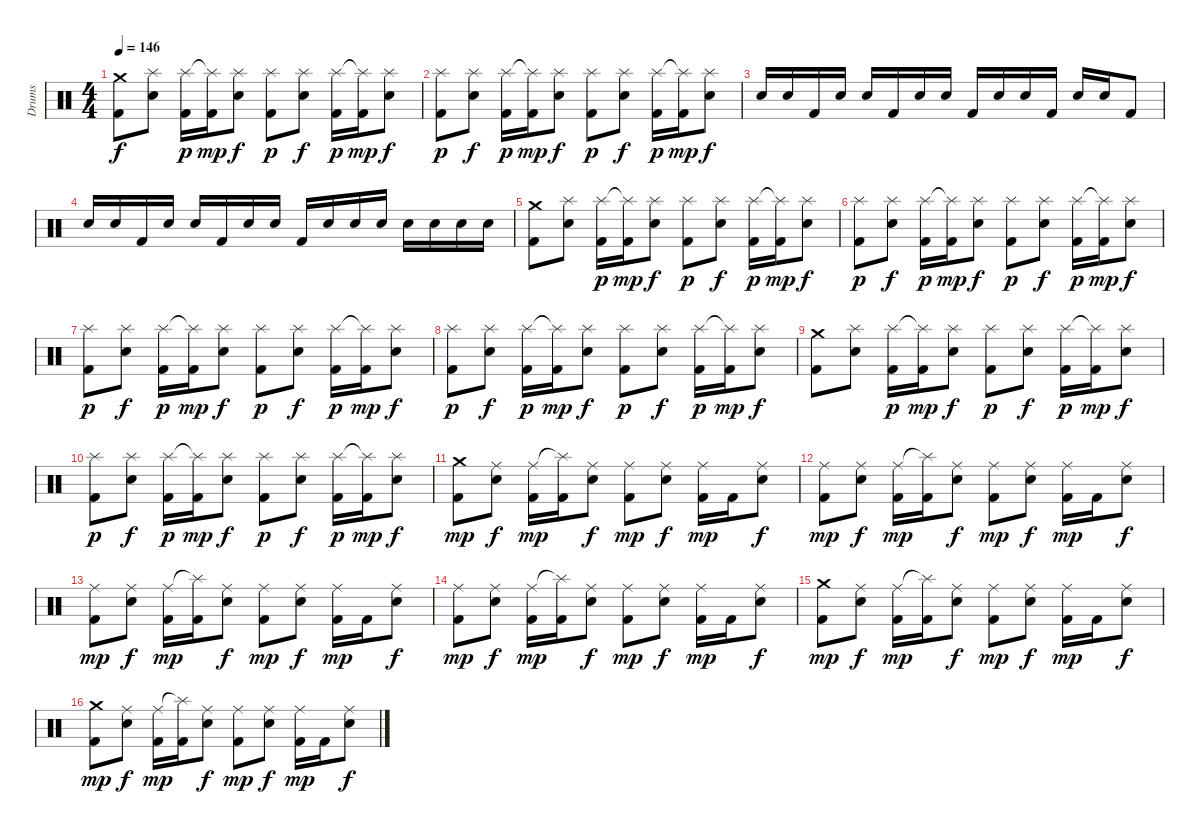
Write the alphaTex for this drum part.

\track ("Drums" "Drums") {instrument percussion}
\staff {score}
\articulation defaults
\ts (4 4)
\tempo 146
\clef neutral
\ks c
("Crash medium (hit)" "Kick (hit) 2").8{dy f} ("Splash (hit)" "Snare (hit) 2").8 ("Splash (hit)" "Kick (hit) 2").16{dy p} ("Splash (hit)"{t} "Kick (hit) 2").16{dy mp} ("Splash (hit)" "Snare (hit) 2").8{dy f} ("Splash (hit)" "Kick (hit) 2").8{dy p} ("Splash (hit)" "Snare (hit) 2").8{dy f} ("Splash (hit)" "Kick (hit) 2").16{dy p} ("Splash (hit)"{t} "Kick (hit) 2").16{dy mp} ("Splash (hit)" "Snare (hit) 2").8{dy f} |
("Splash (hit)" "Kick (hit) 2").8{dy p} ("Splash (hit)" "Snare (hit) 2").8{dy f} ("Splash (hit)" "Kick (hit) 2").16{dy p} ("Splash (hit)"{t} "Kick (hit) 2").16{dy mp} ("Splash (hit)" "Snare (hit) 2").8{dy f} ("Splash (hit)" "Kick (hit) 2").8{dy p} ("Splash (hit)" "Snare (hit) 2").8{dy f} ("Splash (hit)" "Kick (hit) 2").16{dy p} ("Splash (hit)"{t} "Kick (hit) 2").16{dy mp} ("Splash (hit)" "Snare (hit) 2").8{dy f} |
"Snare (hit) 2".16 "Snare (hit) 2".16 "Kick (hit) 2".16 "Snare (hit) 2".16 "Snare (hit) 2".16 "Kick (hit) 2".16 "Snare (hit) 2".16 "Snare (hit) 2".16 "Kick (hit) 2".16 "Snare (hit) 2".16 "Snare (hit) 2".16 "Kick (hit) 2".16 "Snare (hit) 2".16 "Snare (hit) 2".16 "Kick (hit) 2".8 |
"Snare (hit) 2".16 "Snare (hit) 2".16 "Kick (hit) 2".16 "Snare (hit) 2".16 "Snare (hit) 2".16 "Kick (hit) 2".16 "Snare (hit) 2".16 "Snare (hit) 2".16 "Kick (hit) 2".16 "Snare (hit) 2".16 "Snare (hit) 2".16 "Snare (hit) 2".16 "Snare (hit) 2".16 "Snare (hit) 2".16 "Snare (hit) 2".16 "Snare (hit) 2".16 |
("Crash medium (hit)" "Kick (hit) 2").8 ("Splash (hit)" "Snare (hit) 2").8 ("Splash (hit)" "Kick (hit) 2").16{dy p} ("Splash (hit)"{t} "Kick (hit) 2").16{dy mp} ("Splash (hit)" "Snare (hit) 2").8{dy f} ("Splash (hit)" "Kick (hit) 2").8{dy p} ("Splash (hit)" "Snare (hit) 2").8{dy f} ("Splash (hit)" "Kick (hit) 2").16{dy p} ("Splash (hit)"{t} "Kick (hit) 2").16{dy mp} ("Splash (hit)" "Snare (hit) 2").8{dy f} |
("Splash (hit)" "Kick (hit) 2").8{dy p} ("Splash (hit)" "Snare (hit) 2").8{dy f} ("Splash (hit)" "Kick (hit) 2").16{dy p} ("Splash (hit)"{t} "Kick (hit) 2").16{dy mp} ("Splash (hit)" "Snare (hit) 2").8{dy f} ("Splash (hit)" "Kick (hit) 2").8{dy p} ("Splash (hit)" "Snare (hit) 2").8{dy f} ("Splash (hit)" "Kick (hit) 2").16{dy p} ("Splash (hit)"{t} "Kick (hit) 2").16{dy mp} ("Splash (hit)" "Snare (hit) 2").8{dy f} |
("Splash (hit)" "Kick (hit) 2").8{dy p} ("Splash (hit)" "Snare (hit) 2").8{dy f} ("Splash (hit)" "Kick (hit) 2").16{dy p} ("Splash (hit)"{t} "Kick (hit) 2").16{dy mp} ("Splash (hit)" "Snare (hit) 2").8{dy f} ("Splash (hit)" "Kick (hit) 2").8{dy p} ("Splash (hit)" "Snare (hit) 2").8{dy f} ("Splash (hit)" "Kick (hit) 2").16{dy p} ("Splash (hit)"{t} "Kick (hit) 2").16{dy mp} ("Splash (hit)" "Snare (hit) 2").8{dy f} |
("Splash (hit)" "Kick (hit) 2").8{dy p} ("Splash (hit)" "Snare (hit) 2").8{dy f} ("Splash (hit)" "Kick (hit) 2").16{dy p} ("Splash (hit)"{t} "Kick (hit) 2").16{dy mp} ("Splash (hit)" "Snare (hit) 2").8{dy f} ("Splash (hit)" "Kick (hit) 2").8{dy p} ("Splash (hit)" "Snare (hit) 2").8{dy f} ("Splash (hit)" "Kick (hit) 2").16{dy p} ("Splash (hit)"{t} "Kick (hit) 2").16{dy mp} ("Splash (hit)" "Snare (hit) 2").8{dy f} |
("Crash medium (hit)" "Kick (hit) 2").8 ("Splash (hit)" "Snare (hit) 2").8 ("Splash (hit)" "Kick (hit) 2").16{dy p} ("Splash (hit)"{t} "Kick (hit) 2").16{dy mp} ("Splash (hit)" "Snare (hit) 2").8{dy f} ("Splash (hit)" "Kick (hit) 2").8{dy p} ("Splash (hit)" "Snare (hit) 2").8{dy f} ("Splash (hit)" "Kick (hit) 2").16{dy p} ("Splash (hit)"{t} "Kick (hit) 2").16{dy mp} ("Splash (hit)" "Snare (hit) 2").8{dy f} |
("Splash (hit)" "Kick (hit) 2").8{dy p} ("Splash (hit)" "Snare (hit) 2").8{dy f} ("Splash (hit)" "Kick (hit) 2").16{dy p} ("Splash (hit)"{t} "Kick (hit) 2").16{dy mp} ("Splash (hit)" "Snare (hit) 2").8{dy f} ("Splash (hit)" "Kick (hit) 2").8{dy p} ("Splash (hit)" "Snare (hit) 2").8{dy f} ("Splash (hit)" "Kick (hit) 2").16{dy p} ("Splash (hit)"{t} "Kick (hit) 2").16{dy mp} ("Splash (hit)" "Snare (hit) 2").8{dy f} |
("Crash medium (hit)" "Kick (hit) 2").8{dy mp} ("Ride (middle)" "Snare (hit) 2").8{dy f} ("Ride (middle)" "Kick (hit) 2").16{dy mp} ("Splash (hit)"{t} "Kick (hit) 2").16 ("Ride (middle)" "Snare (hit) 2").8{dy f} ("Ride (middle)" "Kick (hit) 2").8{dy mp} ("Ride (middle)" "Snare (hit) 2").8{dy f} ("Ride (middle)" "Kick (hit) 2").16{dy mp} "Kick (hit) 2".16 ("Ride (middle)" "Snare (hit) 2").8{dy f} |
("Ride (middle)" "Kick (hit) 2").8{dy mp} ("Ride (middle)" "Snare (hit) 2").8{dy f} ("Ride (middle)" "Kick (hit) 2").16{dy mp} ("Splash (hit)"{t} "Kick (hit) 2").16 ("Ride (middle)" "Snare (hit) 2").8{dy f} ("Ride (middle)" "Kick (hit) 2").8{dy mp} ("Ride (middle)" "Snare (hit) 2").8{dy f} ("Ride (middle)" "Kick (hit) 2").16{dy mp} "Kick (hit) 2".16 ("Ride (middle)" "Snare (hit) 2").8{dy f} |
("Ride (middle)" "Kick (hit) 2").8{dy mp} ("Ride (middle)" "Snare (hit) 2").8{dy f} ("Ride (middle)" "Kick (hit) 2").16{dy mp} ("Splash (hit)"{t} "Kick (hit) 2").16 ("Ride (middle)" "Snare (hit) 2").8{dy f} ("Ride (middle)" "Kick (hit) 2").8{dy mp} ("Ride (middle)" "Snare (hit) 2").8{dy f} ("Ride (middle)" "Kick (hit) 2").16{dy mp} "Kick (hit) 2".16 ("Ride (middle)" "Snare (hit) 2").8{dy f} |
("Ride (middle)" "Kick (hit) 2").8{dy mp} ("Ride (middle)" "Snare (hit) 2").8{dy f} ("Ride (middle)" "Kick (hit) 2").16{dy mp} ("Splash (hit)"{t} "Kick (hit) 2").16 ("Ride (middle)" "Snare (hit) 2").8{dy f} ("Ride (middle)" "Kick (hit) 2").8{dy mp} ("Ride (middle)" "Snare (hit) 2").8{dy f} ("Ride (middle)" "Kick (hit) 2").16{dy mp} "Kick (hit) 2".16 ("Ride (middle)" "Snare (hit) 2").8{dy f} |
("Crash medium (hit)" "Kick (hit) 2").8{dy mp} ("Ride (middle)" "Snare (hit) 2").8{dy f} ("Ride (middle)" "Kick (hit) 2").16{dy mp} ("Splash (hit)"{t} "Kick (hit) 2").16 ("Ride (middle)" "Snare (hit) 2").8{dy f} ("Ride (middle)" "Kick (hit) 2").8{dy mp} ("Ride (middle)" "Snare (hit) 2").8{dy f} ("Ride (middle)" "Kick (hit) 2").16{dy mp} "Kick (hit) 2".16 ("Ride (middle)" "Snare (hit) 2").8{dy f} |
("Crash medium (hit)" "Kick (hit) 2").8{dy mp} ("Ride (middle)" "Snare (hit) 2").8{dy f} ("Ride (middle)" "Kick (hit) 2").16{dy mp} ("Splash (hit)"{t} "Kick (hit) 2").16 ("Ride (middle)" "Snare (hit) 2").8{dy f} ("Ride (middle)" "Kick (hit) 2").8{dy mp} ("Ride (middle)" "Snare (hit) 2").8{dy f} ("Ride (middle)" "Kick (hit) 2").16{dy mp} "Kick (hit) 2".16 ("Ride (middle)" "Snare (hit) 2").8{dy f}
